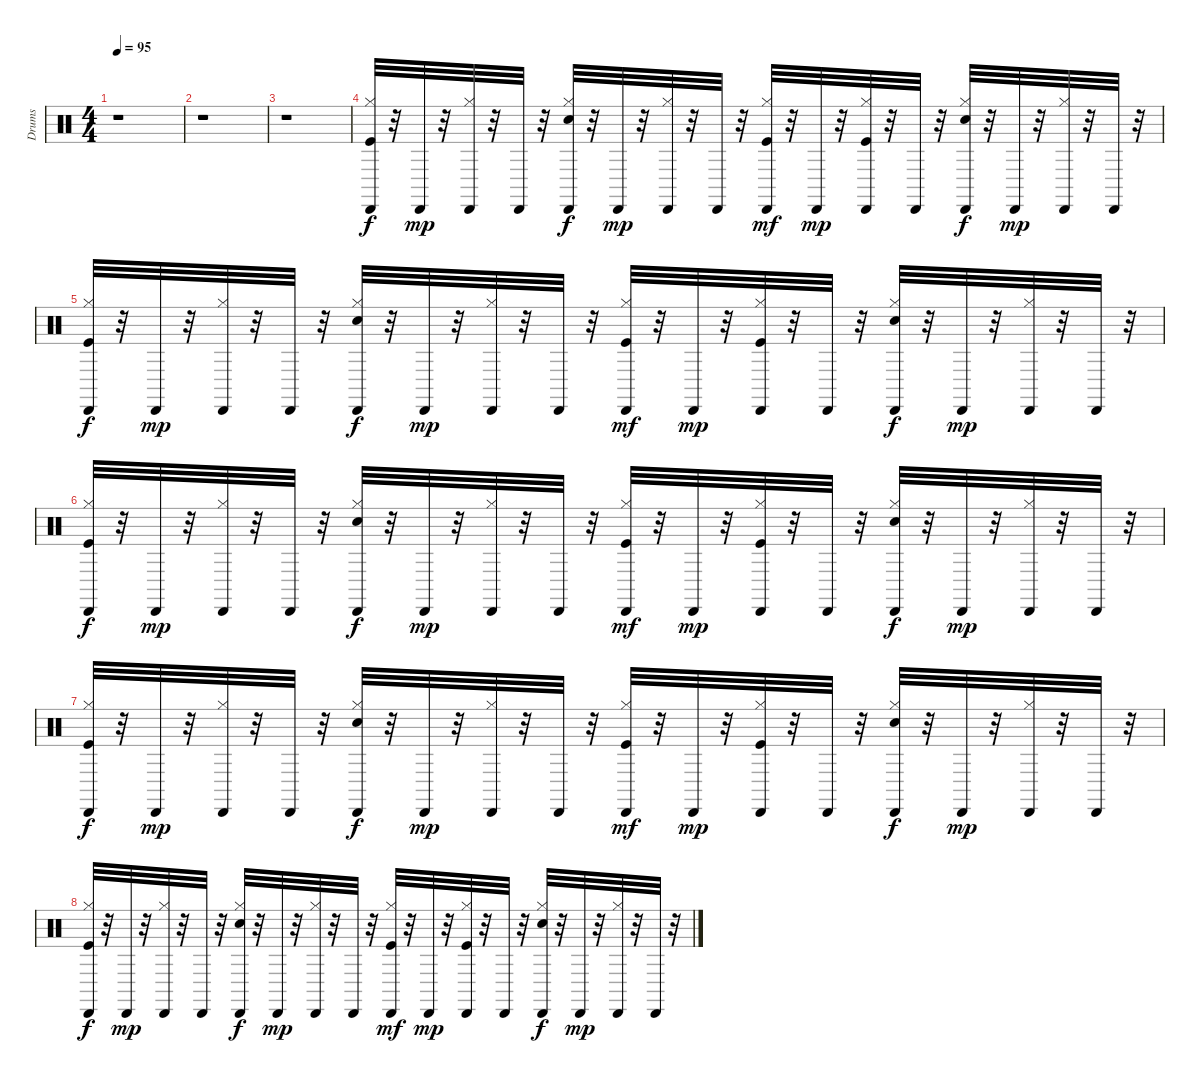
\track ("Drums" "Drums") {instrument percussion}
\staff {score}
\articulation defaults
\ts (4 4)
\tempo 95
\clef neutral
\ks c
r.1{dy f} |
r.1 |
r.1 |
("Kick (hit)" "Hi-Hat (closed)" "Cabasa (hit)").32 r.32 "Cabasa (hit)".32{dy mp} r.32 ("Hi-Hat (closed)" "Cabasa (hit)").32 r.32 "Cabasa (hit)".32 r.32 ("Hi-Hat (closed)" "Electric Snare (hit)" "Cabasa (hit)").32{dy f} r.32 "Cabasa (hit)".32{dy mp} r.32 ("Hi-Hat (closed)" "Cabasa (hit)").32 r.32 "Cabasa (hit)".32 r.32 ("Hi-Hat (closed)" "Kick (hit)" "Cabasa (hit)").32{dy mf} r.32 "Cabasa (hit)".32{dy mp} r.32 ("Hi-Hat (closed)" "Kick (hit)" "Cabasa (hit)").32 r.32 "Cabasa (hit)".32 r.32 ("Hi-Hat (closed)" "Electric Snare (hit)" "Cabasa (hit)").32{dy f} r.32 "Cabasa (hit)".32{dy mp} r.32 ("Hi-Hat (closed)" "Cabasa (hit)").32 r.32 "Cabasa (hit)".32 r.32 |
("Hi-Hat (closed)" "Kick (hit)" "Cabasa (hit)").32{dy f} r.32 "Cabasa (hit)".32{dy mp} r.32 ("Hi-Hat (closed)" "Cabasa (hit)").32 r.32 "Cabasa (hit)".32 r.32 ("Hi-Hat (closed)" "Electric Snare (hit)" "Cabasa (hit)").32{dy f} r.32 "Cabasa (hit)".32{dy mp} r.32 ("Hi-Hat (closed)" "Cabasa (hit)").32 r.32 "Cabasa (hit)".32 r.32 ("Hi-Hat (closed)" "Kick (hit)" "Cabasa (hit)").32{dy mf} r.32 "Cabasa (hit)".32{dy mp} r.32 ("Hi-Hat (closed)" "Kick (hit)" "Cabasa (hit)").32 r.32 "Cabasa (hit)".32 r.32 ("Hi-Hat (closed)" "Electric Snare (hit)" "Cabasa (hit)").32{dy f} r.32 "Cabasa (hit)".32{dy mp} r.32 ("Hi-Hat (closed)" "Cabasa (hit)").32 r.32 "Cabasa (hit)".32 r.32 |
("Kick (hit)" "Hi-Hat (closed)" "Cabasa (hit)").32{dy f} r.32 "Cabasa (hit)".32{dy mp} r.32 ("Hi-Hat (closed)" "Cabasa (hit)").32 r.32 "Cabasa (hit)".32 r.32 ("Hi-Hat (closed)" "Electric Snare (hit)" "Cabasa (hit)").32{dy f} r.32 "Cabasa (hit)".32{dy mp} r.32 ("Hi-Hat (closed)" "Cabasa (hit)").32 r.32 "Cabasa (hit)".32 r.32 ("Hi-Hat (closed)" "Kick (hit)" "Cabasa (hit)").32{dy mf} r.32 "Cabasa (hit)".32{dy mp} r.32 ("Hi-Hat (closed)" "Kick (hit)" "Cabasa (hit)").32 r.32 "Cabasa (hit)".32 r.32 ("Hi-Hat (closed)" "Electric Snare (hit)" "Cabasa (hit)").32{dy f} r.32 "Cabasa (hit)".32{dy mp} r.32 ("Hi-Hat (closed)" "Cabasa (hit)").32 r.32 "Cabasa (hit)".32 r.32 |
("Hi-Hat (closed)" "Kick (hit)" "Cabasa (hit)").32{dy f} r.32 "Cabasa (hit)".32{dy mp} r.32 ("Hi-Hat (closed)" "Cabasa (hit)").32 r.32 "Cabasa (hit)".32 r.32 ("Hi-Hat (closed)" "Electric Snare (hit)" "Cabasa (hit)").32{dy f} r.32 "Cabasa (hit)".32{dy mp} r.32 ("Hi-Hat (closed)" "Cabasa (hit)").32 r.32 "Cabasa (hit)".32 r.32 ("Hi-Hat (closed)" "Kick (hit)" "Cabasa (hit)").32{dy mf} r.32 "Cabasa (hit)".32{dy mp} r.32 ("Hi-Hat (closed)" "Kick (hit)" "Cabasa (hit)").32 r.32 "Cabasa (hit)".32 r.32 ("Hi-Hat (closed)" "Electric Snare (hit)" "Cabasa (hit)").32{dy f} r.32 "Cabasa (hit)".32{dy mp} r.32 ("Hi-Hat (closed)" "Cabasa (hit)").32 r.32 "Cabasa (hit)".32 r.32 |
("Kick (hit)" "Hi-Hat (closed)" "Cabasa (hit)").32{dy f} r.32 "Cabasa (hit)".32{dy mp} r.32 ("Hi-Hat (closed)" "Cabasa (hit)").32 r.32 "Cabasa (hit)".32 r.32 ("Hi-Hat (closed)" "Electric Snare (hit)" "Cabasa (hit)").32{dy f} r.32 "Cabasa (hit)".32{dy mp} r.32 ("Hi-Hat (closed)" "Cabasa (hit)").32 r.32 "Cabasa (hit)".32 r.32 ("Hi-Hat (closed)" "Kick (hit)" "Cabasa (hit)").32{dy mf} r.32 "Cabasa (hit)".32{dy mp} r.32 ("Hi-Hat (closed)" "Kick (hit)" "Cabasa (hit)").32 r.32 "Cabasa (hit)".32 r.32 ("Hi-Hat (closed)" "Electric Snare (hit)" "Cabasa (hit)").32{dy f} r.32 "Cabasa (hit)".32{dy mp} r.32 ("Hi-Hat (closed)" "Cabasa (hit)").32 r.32 "Cabasa (hit)".32 r.32
